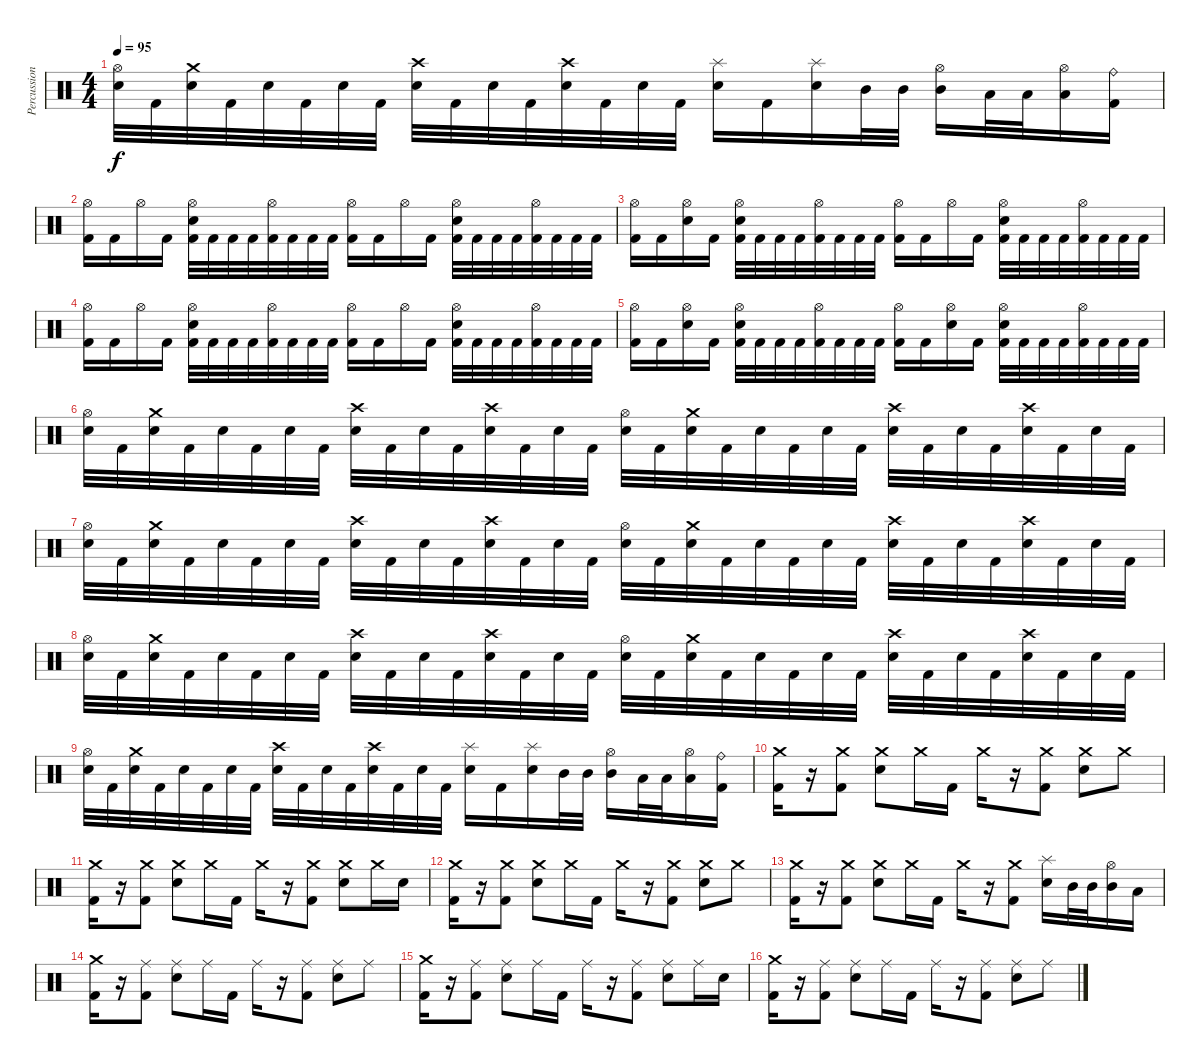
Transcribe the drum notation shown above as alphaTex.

\track ("Percussion" "Percussion") {instrument percussion}
\staff {score}
\articulation defaults
\ts (4 4)
\tempo 95
\clef neutral
\ks c
("Hi-Hat (open)" "Electric Snare (hit)").32{dy f} "Kick (hit) 2".32 ("Crash medium (hit)" "Electric Snare (hit)").32 "Kick (hit) 2".32 "Electric Snare (hit)".32 "Kick (hit) 2".32 "Electric Snare (hit)".32 "Kick (hit) 2".32 ("Crash high (hit)" "Electric Snare (hit)").32 "Kick (hit) 2".32 "Electric Snare (hit)".32 "Kick (hit) 2".32 ("Crash high (hit)" "Electric Snare (hit)").32 "Kick (hit) 2".32 "Electric Snare (hit)".32 "Kick (hit) 2".32 ("Splash (hit)" "Electric Snare (hit)").16 "Kick (hit) 2".16 ("Splash (hit)" "Electric Snare (hit)").16 "Mid Tom (hit)".32 "Mid Tom (hit)".32 ("Hi-Hat (open)" "Mid Tom (hit)").16 "Low Tom (hit)".32 "Low Tom (hit)".32 ("Hi-Hat (open)" "Low Tom (hit)").16 ("Ride (bell)" "Kick (hit) 2").16 |
("Hi-Hat (open)" "Kick (hit) 2").16 "Kick (hit) 2".16 "Hi-Hat (open)".16 "Kick (hit) 2".16 ("Hi-Hat (open)" "Electric Snare (hit)" "Kick (hit) 2").32 "Kick (hit) 2".32 "Kick (hit) 2".32 "Kick (hit) 2".32 ("Hi-Hat (open)" "Kick (hit) 2").32 "Kick (hit) 2".32 "Kick (hit) 2".32 "Kick (hit) 2".32 ("Hi-Hat (open)" "Kick (hit) 2").16 "Kick (hit) 2".16 "Hi-Hat (open)".16 "Kick (hit) 2".16 ("Hi-Hat (open)" "Electric Snare (hit)" "Kick (hit) 2").32 "Kick (hit) 2".32 "Kick (hit) 2".32 "Kick (hit) 2".32 ("Hi-Hat (open)" "Kick (hit) 2").32 "Kick (hit) 2".32 "Kick (hit) 2".32 "Kick (hit) 2".32 |
("Hi-Hat (open)" "Kick (hit) 2").16 "Kick (hit) 2".16 ("Hi-Hat (open)" "Electric Snare (hit)").16 "Kick (hit) 2".16 ("Hi-Hat (open)" "Electric Snare (hit)" "Kick (hit) 2").32 "Kick (hit) 2".32 "Kick (hit) 2".32 "Kick (hit) 2".32 ("Hi-Hat (open)" "Kick (hit) 2").32 "Kick (hit) 2".32 "Kick (hit) 2".32 "Kick (hit) 2".32 ("Hi-Hat (open)" "Kick (hit) 2").16 "Kick (hit) 2".16 "Hi-Hat (open)".16 "Kick (hit) 2".16 ("Hi-Hat (open)" "Electric Snare (hit)" "Kick (hit) 2").32 "Kick (hit) 2".32 "Kick (hit) 2".32 "Kick (hit) 2".32 ("Hi-Hat (open)" "Kick (hit) 2").32 "Kick (hit) 2".32 "Kick (hit) 2".32 "Kick (hit) 2".32 |
("Hi-Hat (open)" "Kick (hit) 2").16 "Kick (hit) 2".16 "Hi-Hat (open)".16 "Kick (hit) 2".16 ("Hi-Hat (open)" "Electric Snare (hit)" "Kick (hit) 2").32 "Kick (hit) 2".32 "Kick (hit) 2".32 "Kick (hit) 2".32 ("Hi-Hat (open)" "Kick (hit) 2").32 "Kick (hit) 2".32 "Kick (hit) 2".32 "Kick (hit) 2".32 ("Hi-Hat (open)" "Kick (hit) 2").16 "Kick (hit) 2".16 "Hi-Hat (open)".16 "Kick (hit) 2".16 ("Hi-Hat (open)" "Electric Snare (hit)" "Kick (hit) 2").32 "Kick (hit) 2".32 "Kick (hit) 2".32 "Kick (hit) 2".32 ("Hi-Hat (open)" "Kick (hit) 2").32 "Kick (hit) 2".32 "Kick (hit) 2".32 "Kick (hit) 2".32 |
("Hi-Hat (open)" "Kick (hit) 2").16 "Kick (hit) 2".16 ("Hi-Hat (open)" "Electric Snare (hit)").16 "Kick (hit) 2".16 ("Hi-Hat (open)" "Electric Snare (hit)" "Kick (hit) 2").32 "Kick (hit) 2".32 "Kick (hit) 2".32 "Kick (hit) 2".32 ("Hi-Hat (open)" "Kick (hit) 2").32 "Kick (hit) 2".32 "Kick (hit) 2".32 "Kick (hit) 2".32 ("Hi-Hat (open)" "Kick (hit) 2").16 "Kick (hit) 2".16 ("Hi-Hat (open)" "Electric Snare (hit)").16 "Kick (hit) 2".16 ("Hi-Hat (open)" "Electric Snare (hit)" "Kick (hit) 2").32 "Kick (hit) 2".32 "Kick (hit) 2".32 "Kick (hit) 2".32 ("Hi-Hat (open)" "Kick (hit) 2").32 "Kick (hit) 2".32 "Kick (hit) 2".32 "Kick (hit) 2".32 |
("Hi-Hat (open)" "Electric Snare (hit)").32 "Kick (hit) 2".32 ("Crash medium (hit)" "Electric Snare (hit)").32 "Kick (hit) 2".32 "Electric Snare (hit)".32 "Kick (hit) 2".32 "Electric Snare (hit)".32 "Kick (hit) 2".32 ("Crash high (hit)" "Electric Snare (hit)").32 "Kick (hit) 2".32 "Electric Snare (hit)".32 "Kick (hit) 2".32 ("Crash high (hit)" "Electric Snare (hit)").32 "Kick (hit) 2".32 "Electric Snare (hit)".32 "Kick (hit) 2".32 ("Hi-Hat (open)" "Electric Snare (hit)").32 "Kick (hit) 2".32 ("Crash medium (hit)" "Electric Snare (hit)").32 "Kick (hit) 2".32 "Electric Snare (hit)".32 "Kick (hit) 2".32 "Electric Snare (hit)".32 "Kick (hit) 2".32 ("Crash high (hit)" "Electric Snare (hit)").32 "Kick (hit) 2".32 "Electric Snare (hit)".32 "Kick (hit) 2".32 ("Crash high (hit)" "Electric Snare (hit)").32 "Kick (hit) 2".32 "Electric Snare (hit)".32 "Kick (hit) 2".32 |
("Hi-Hat (open)" "Electric Snare (hit)").32 "Kick (hit) 2".32 ("Crash medium (hit)" "Electric Snare (hit)").32 "Kick (hit) 2".32 "Electric Snare (hit)".32 "Kick (hit) 2".32 "Electric Snare (hit)".32 "Kick (hit) 2".32 ("Crash high (hit)" "Electric Snare (hit)").32 "Kick (hit) 2".32 "Electric Snare (hit)".32 "Kick (hit) 2".32 ("Crash high (hit)" "Electric Snare (hit)").32 "Kick (hit) 2".32 "Electric Snare (hit)".32 "Kick (hit) 2".32 ("Hi-Hat (open)" "Electric Snare (hit)").32 "Kick (hit) 2".32 ("Crash medium (hit)" "Electric Snare (hit)").32 "Kick (hit) 2".32 "Electric Snare (hit)".32 "Kick (hit) 2".32 "Electric Snare (hit)".32 "Kick (hit) 2".32 ("Crash high (hit)" "Electric Snare (hit)").32 "Kick (hit) 2".32 "Electric Snare (hit)".32 "Kick (hit) 2".32 ("Crash high (hit)" "Electric Snare (hit)").32 "Kick (hit) 2".32 "Electric Snare (hit)".32 "Kick (hit) 2".32 |
("Hi-Hat (open)" "Electric Snare (hit)").32 "Kick (hit) 2".32 ("Crash medium (hit)" "Electric Snare (hit)").32 "Kick (hit) 2".32 "Electric Snare (hit)".32 "Kick (hit) 2".32 "Electric Snare (hit)".32 "Kick (hit) 2".32 ("Crash high (hit)" "Electric Snare (hit)").32 "Kick (hit) 2".32 "Electric Snare (hit)".32 "Kick (hit) 2".32 ("Crash high (hit)" "Electric Snare (hit)").32 "Kick (hit) 2".32 "Electric Snare (hit)".32 "Kick (hit) 2".32 ("Hi-Hat (open)" "Electric Snare (hit)").32 "Kick (hit) 2".32 ("Crash medium (hit)" "Electric Snare (hit)").32 "Kick (hit) 2".32 "Electric Snare (hit)".32 "Kick (hit) 2".32 "Electric Snare (hit)".32 "Kick (hit) 2".32 ("Crash high (hit)" "Electric Snare (hit)").32 "Kick (hit) 2".32 "Electric Snare (hit)".32 "Kick (hit) 2".32 ("Crash high (hit)" "Electric Snare (hit)").32 "Kick (hit) 2".32 "Electric Snare (hit)".32 "Kick (hit) 2".32 |
("Hi-Hat (open)" "Electric Snare (hit)").32 "Kick (hit) 2".32 ("Crash medium (hit)" "Electric Snare (hit)").32 "Kick (hit) 2".32 "Electric Snare (hit)".32 "Kick (hit) 2".32 "Electric Snare (hit)".32 "Kick (hit) 2".32 ("Crash high (hit)" "Electric Snare (hit)").32 "Kick (hit) 2".32 "Electric Snare (hit)".32 "Kick (hit) 2".32 ("Crash high (hit)" "Electric Snare (hit)").32 "Kick (hit) 2".32 "Electric Snare (hit)".32 "Kick (hit) 2".32 ("Splash (hit)" "Electric Snare (hit)").16 "Kick (hit) 2".16 ("Splash (hit)" "Electric Snare (hit)").16 "Mid Tom (hit)".32 "Mid Tom (hit)".32 ("Hi-Hat (open)" "Mid Tom (hit)").16 "Low Tom (hit)".32 "Low Tom (hit)".32 ("Hi-Hat (open)" "Low Tom (hit)").16 ("Ride (bell)" "Kick (hit) 2").16 |
("Crash medium (hit)" "Kick (hit) 2").16 r.16 ("Crash medium (hit)" "Kick (hit) 2").8 ("Crash medium (hit)" "Electric Snare (hit)").8 "Crash medium (hit)".16 "Kick (hit) 2".16 "Crash medium (hit)".16 r.16 ("Crash medium (hit)" "Kick (hit) 2").8 ("Crash medium (hit)" "Electric Snare (hit)").8 "Crash medium (hit)".8 |
("Crash medium (hit)" "Kick (hit) 2").16 r.16 ("Crash medium (hit)" "Kick (hit) 2").8 ("Crash medium (hit)" "Electric Snare (hit)").8 "Crash medium (hit)".16 "Kick (hit) 2".16 "Crash medium (hit)".16 r.16 ("Crash medium (hit)" "Kick (hit) 2").8 ("Crash medium (hit)" "Electric Snare (hit)").8 "Crash medium (hit)".16 "Electric Snare (hit)".16 |
("Crash medium (hit)" "Kick (hit) 2").16 r.16 ("Crash medium (hit)" "Kick (hit) 2").8 ("Crash medium (hit)" "Electric Snare (hit)").8 "Crash medium (hit)".16 "Kick (hit) 2".16 "Crash medium (hit)".16 r.16 ("Crash medium (hit)" "Kick (hit) 2").8 ("Crash medium (hit)" "Electric Snare (hit)").8 "Crash medium (hit)".8 |
("Crash medium (hit)" "Kick (hit) 2").16 r.16 ("Crash medium (hit)" "Kick (hit) 2").8 ("Crash medium (hit)" "Electric Snare (hit)").8 "Crash medium (hit)".16 "Kick (hit) 2".16 "Crash medium (hit)".16 r.16 ("Crash medium (hit)" "Kick (hit) 2").8 ("Splash (hit)" "Electric Snare (hit)").16 "Mid Tom (hit)".32 "Mid Tom (hit)".32 ("Hi-Hat (open)" "Mid Tom (hit)").16 "Low Tom (hit)".16 |
("Crash medium (hit)" "Kick (hit) 2").16 r.16 ("Ride (middle)" "Kick (hit) 2").8 ("Ride (middle)" "Electric Snare (hit)").8 "Ride (middle)".16 "Kick (hit) 2".16 "Ride (middle)".16 r.16 ("Ride (middle)" "Kick (hit) 2").8 ("Ride (middle)" "Electric Snare (hit)").8 "Ride (middle)".8 |
("Crash medium (hit)" "Kick (hit) 2").16 r.16 ("Ride (middle)" "Kick (hit) 2").8 ("Ride (middle)" "Electric Snare (hit)").8 "Ride (middle)".16 "Kick (hit) 2".16 "Ride (middle)".16 r.16 ("Ride (middle)" "Kick (hit) 2").8 ("Ride (middle)" "Electric Snare (hit)").8 "Ride (middle)".16 "Electric Snare (hit)".16 |
("Crash medium (hit)" "Kick (hit) 2").16 r.16 ("Ride (middle)" "Kick (hit) 2").8 ("Ride (middle)" "Electric Snare (hit)").8 "Ride (middle)".16 "Kick (hit) 2".16 "Ride (middle)".16 r.16 ("Ride (middle)" "Kick (hit) 2").8 ("Ride (middle)" "Electric Snare (hit)").8 "Ride (middle)".8
